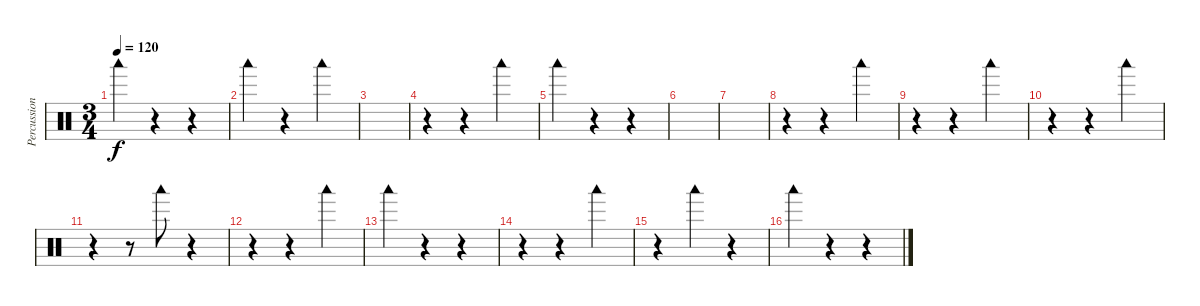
\track ("Percussion" "Percussion") {instrument percussion}
\staff {score}
\articulation defaults
\ts (3 4)
\tempo 120
\clef neutral
\ks c "Woodblock low (hit)".4{dy f}
r.4 r.4 |
"Woodblock low (hit)".4 r.4 "Woodblock low (hit)".4 |
|
r.4 r.4 "Woodblock low (hit)".4 |
"Woodblock low (hit)".4 r.4 r.4 |
|
|
r.4 r.4 "Woodblock low (hit)".4 |
r.4 r.4 "Woodblock low (hit)".4 |
r.4 r.4 "Woodblock low (hit)".4 |
r.4 r.8 "Woodblock low (hit)".8 r.4 |
r.4 r.4 "Woodblock low (hit)".4 |
"Woodblock low (hit)".4 r.4 r.4 |
r.4 r.4 "Woodblock low (hit)".4 |
r.4 "Woodblock low (hit)".4 r.4 |
"Woodblock low (hit)".4 r.4 r.4
